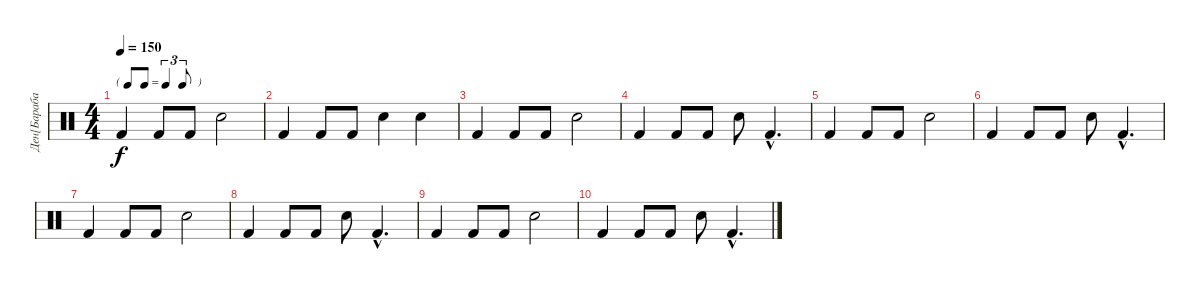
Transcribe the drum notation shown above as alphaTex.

\track ("Ден[Барабаны]" "Ден[Бараба") {instrument percussion}
\staff {score}
\articulation defaults
\ts (4 4)
\tf triplet8th
\tempo 150
\clef neutral
\ks c "Kick (hit) 2".4{dy f} "Kick (hit) 2".8 "Kick (hit) 2".8 "Electric Snare (hit)".2
|
"Kick (hit) 2".4 "Kick (hit) 2".8 "Kick (hit) 2".8 "Electric Snare (hit)".4 "Electric Snare (hit)".4 |
"Kick (hit) 2".4 "Kick (hit) 2".8 "Kick (hit) 2".8 "Electric Snare (hit)".2 |
"Kick (hit) 2".4 "Kick (hit) 2".8 "Kick (hit) 2".8 "Electric Snare (hit)".8 "Kick (hit) 2"{hac}.4{d} |
"Kick (hit) 2".4 "Kick (hit) 2".8 "Kick (hit) 2".8 "Electric Snare (hit)".2 |
"Kick (hit) 2".4 "Kick (hit) 2".8 "Kick (hit) 2".8 "Electric Snare (hit)".8 "Kick (hit) 2"{hac}.4{d} |
"Kick (hit) 2".4 "Kick (hit) 2".8 "Kick (hit) 2".8 "Electric Snare (hit)".2 |
"Kick (hit) 2".4 "Kick (hit) 2".8 "Kick (hit) 2".8 "Electric Snare (hit)".8 "Kick (hit) 2"{hac}.4{d} |
"Kick (hit) 2".4 "Kick (hit) 2".8 "Kick (hit) 2".8 "Electric Snare (hit)".2 |
"Kick (hit) 2".4 "Kick (hit) 2".8 "Kick (hit) 2".8 "Electric Snare (hit)".8 "Kick (hit) 2"{hac}.4{d}
